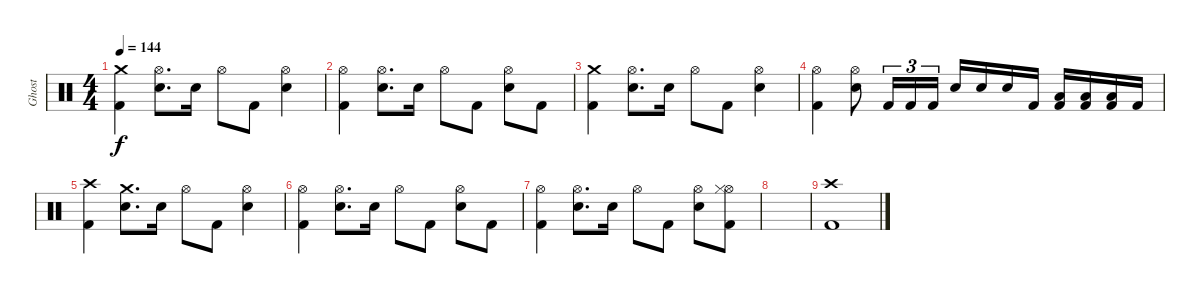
\track ("Ghost" "Ghost") {instrument percussion}
\staff {score}
\articulation defaults
\ts (4 4)
\tempo 144
\clef neutral
\ks c
("Crash medium (hit)" "Kick (hit) 2").4{dy f} ("Hi-Hat (open)" "Electric Snare (hit)").8{d} "Electric Snare (hit)".16 "Hi-Hat (open)".8 "Kick (hit) 2".8 ("Hi-Hat (open)" "Electric Snare (hit)").4 |
("Hi-Hat (open)" "Kick (hit) 2").4 ("Hi-Hat (open)" "Electric Snare (hit)").8{d} "Electric Snare (hit)".16 "Hi-Hat (open)".8 "Kick (hit) 2".8 ("Hi-Hat (open)" "Electric Snare (hit)").8 "Kick (hit) 2".8 |
("Crash medium (hit)" "Kick (hit) 2").4 ("Hi-Hat (open)" "Electric Snare (hit)").8{d} "Electric Snare (hit)".16 "Hi-Hat (open)".8 "Kick (hit) 2".8 ("Hi-Hat (open)" "Electric Snare (hit)").4 |
("Hi-Hat (open)" "Kick (hit) 2").4 ("Hi-Hat (open)" "Electric Snare (hit)").8 "Kick (hit) 2".16{tu (3 2)} "Kick (hit) 2".16{tu (3 2)} "Kick (hit) 2".16{tu (3 2)} "Electric Snare (hit)".16 "Electric Snare (hit)".16 "Electric Snare (hit)".16 "Kick (hit) 2".16 ("Low Tom (hit)" "Kick (hit) 2").16 ("Low Tom (hit)" "Kick (hit) 2").16 ("Low Tom (hit)" "Kick (hit) 2").16 "Kick (hit) 2".16 |
("Crash high (hit)" "Kick (hit) 2").4 ("Crash medium (hit)" "Electric Snare (hit)").8{d} "Electric Snare (hit)".16 "Hi-Hat (open)".8 "Kick (hit) 2".8 ("Hi-Hat (open)" "Electric Snare (hit)").4 |
("Hi-Hat (open)" "Kick (hit) 2").4 ("Hi-Hat (open)" "Electric Snare (hit)").8{d} "Electric Snare (hit)".16 "Hi-Hat (open)".8 "Kick (hit) 2".8 ("Hi-Hat (open)" "Electric Snare (hit)").8 "Kick (hit) 2".8 |
("Hi-Hat (open)" "Kick (hit) 2").4 ("Hi-Hat (open)" "Electric Snare (hit)").8{d} "Electric Snare (hit)".16 "Hi-Hat (open)".8 "Kick (hit) 2".8 ("Hi-Hat (open)" "Electric Snare (hit)").8 ("Hi-Hat (open)" "Hi-Hat (closed)" "Kick (hit) 2").8 |
|
("Crash high (hit)" "Kick (hit) 2").1
